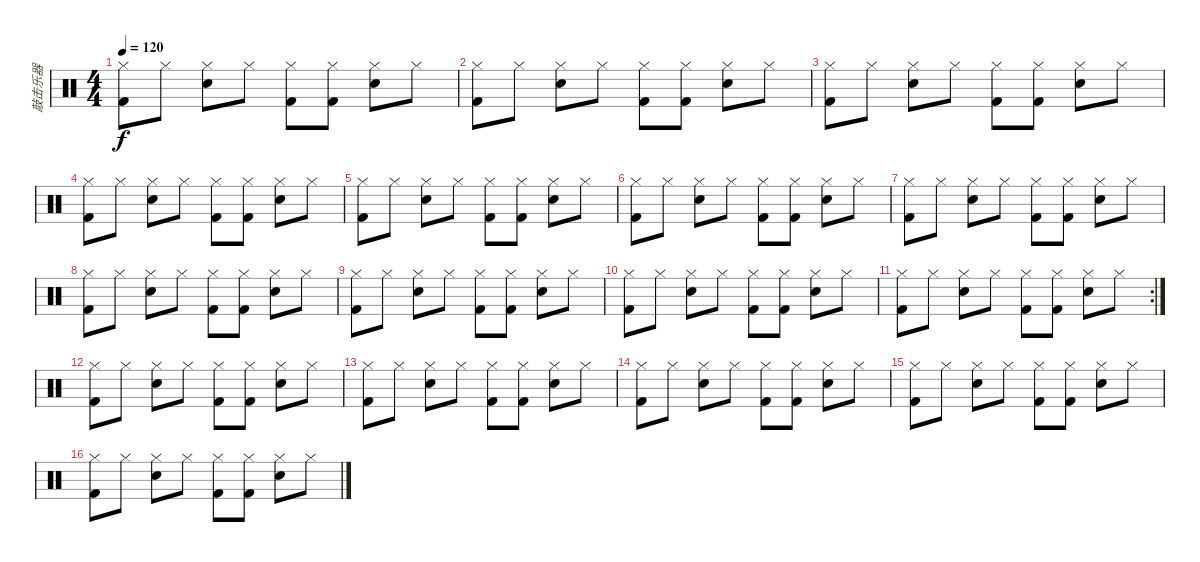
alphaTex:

\track ("敲击乐器" "敲击乐器") {instrument percussion}
\staff {score}
\articulation defaults
\ts (4 4)
\tempo 120
\clef neutral
\ks c
("Kick (hit) 2" "Hi-Hat (closed)").8{dy f} "Hi-Hat (closed)".8 ("Electric Snare (hit)" "Hi-Hat (closed)").8 "Hi-Hat (closed)".8 ("Kick (hit) 2" "Hi-Hat (closed)").8 ("Hi-Hat (closed)" "Kick (hit) 2").8 ("Electric Snare (hit)" "Hi-Hat (closed)").8 "Hi-Hat (closed)".8 |
("Kick (hit) 2" "Hi-Hat (closed)").8 "Hi-Hat (closed)".8 ("Electric Snare (hit)" "Hi-Hat (closed)").8 "Hi-Hat (closed)".8 ("Kick (hit) 2" "Hi-Hat (closed)").8 ("Hi-Hat (closed)" "Kick (hit) 2").8 ("Electric Snare (hit)" "Hi-Hat (closed)").8 "Hi-Hat (closed)".8 |
("Kick (hit) 2" "Hi-Hat (closed)").8 "Hi-Hat (closed)".8 ("Electric Snare (hit)" "Hi-Hat (closed)").8 "Hi-Hat (closed)".8 ("Kick (hit) 2" "Hi-Hat (closed)").8 ("Hi-Hat (closed)" "Kick (hit) 2").8 ("Electric Snare (hit)" "Hi-Hat (closed)").8 "Hi-Hat (closed)".8 |
("Kick (hit) 2" "Hi-Hat (closed)").8 "Hi-Hat (closed)".8 ("Electric Snare (hit)" "Hi-Hat (closed)").8 "Hi-Hat (closed)".8 ("Kick (hit) 2" "Hi-Hat (closed)").8 ("Hi-Hat (closed)" "Kick (hit) 2").8 ("Electric Snare (hit)" "Hi-Hat (closed)").8 "Hi-Hat (closed)".8 |
("Kick (hit) 2" "Hi-Hat (closed)").8 "Hi-Hat (closed)".8 ("Electric Snare (hit)" "Hi-Hat (closed)").8 "Hi-Hat (closed)".8 ("Kick (hit) 2" "Hi-Hat (closed)").8 ("Hi-Hat (closed)" "Kick (hit) 2").8 ("Electric Snare (hit)" "Hi-Hat (closed)").8 "Hi-Hat (closed)".8 |
("Kick (hit) 2" "Hi-Hat (closed)").8 "Hi-Hat (closed)".8 ("Electric Snare (hit)" "Hi-Hat (closed)").8 "Hi-Hat (closed)".8 ("Kick (hit) 2" "Hi-Hat (closed)").8 ("Hi-Hat (closed)" "Kick (hit) 2").8 ("Electric Snare (hit)" "Hi-Hat (closed)").8 "Hi-Hat (closed)".8 |
("Kick (hit) 2" "Hi-Hat (closed)").8 "Hi-Hat (closed)".8 ("Electric Snare (hit)" "Hi-Hat (closed)").8 "Hi-Hat (closed)".8 ("Kick (hit) 2" "Hi-Hat (closed)").8 ("Hi-Hat (closed)" "Kick (hit) 2").8 ("Electric Snare (hit)" "Hi-Hat (closed)").8 "Hi-Hat (closed)".8 |
("Kick (hit) 2" "Hi-Hat (closed)").8 "Hi-Hat (closed)".8 ("Electric Snare (hit)" "Hi-Hat (closed)").8 "Hi-Hat (closed)".8 ("Kick (hit) 2" "Hi-Hat (closed)").8 ("Hi-Hat (closed)" "Kick (hit) 2").8 ("Electric Snare (hit)" "Hi-Hat (closed)").8 "Hi-Hat (closed)".8 |
("Kick (hit) 2" "Hi-Hat (closed)").8 "Hi-Hat (closed)".8 ("Electric Snare (hit)" "Hi-Hat (closed)").8 "Hi-Hat (closed)".8 ("Kick (hit) 2" "Hi-Hat (closed)").8 ("Hi-Hat (closed)" "Kick (hit) 2").8 ("Electric Snare (hit)" "Hi-Hat (closed)").8 "Hi-Hat (closed)".8 |
("Kick (hit) 2" "Hi-Hat (closed)").8 "Hi-Hat (closed)".8 ("Electric Snare (hit)" "Hi-Hat (closed)").8 "Hi-Hat (closed)".8 ("Kick (hit) 2" "Hi-Hat (closed)").8 ("Hi-Hat (closed)" "Kick (hit) 2").8 ("Electric Snare (hit)" "Hi-Hat (closed)").8 "Hi-Hat (closed)".8 |
\rc 2
("Kick (hit) 2" "Hi-Hat (closed)").8 "Hi-Hat (closed)".8 ("Electric Snare (hit)" "Hi-Hat (closed)").8 "Hi-Hat (closed)".8 ("Kick (hit) 2" "Hi-Hat (closed)").8 ("Hi-Hat (closed)" "Kick (hit) 2").8 ("Electric Snare (hit)" "Hi-Hat (closed)").8 "Hi-Hat (closed)".8 |
("Kick (hit) 2" "Hi-Hat (closed)").8 "Hi-Hat (closed)".8 ("Electric Snare (hit)" "Hi-Hat (closed)").8 "Hi-Hat (closed)".8 ("Kick (hit) 2" "Hi-Hat (closed)").8 ("Hi-Hat (closed)" "Kick (hit) 2").8 ("Electric Snare (hit)" "Hi-Hat (closed)").8 "Hi-Hat (closed)".8 |
("Kick (hit) 2" "Hi-Hat (closed)").8 "Hi-Hat (closed)".8 ("Electric Snare (hit)" "Hi-Hat (closed)").8 "Hi-Hat (closed)".8 ("Kick (hit) 2" "Hi-Hat (closed)").8 ("Hi-Hat (closed)" "Kick (hit) 2").8 ("Electric Snare (hit)" "Hi-Hat (closed)").8 "Hi-Hat (closed)".8 |
("Kick (hit) 2" "Hi-Hat (closed)").8 "Hi-Hat (closed)".8 ("Electric Snare (hit)" "Hi-Hat (closed)").8 "Hi-Hat (closed)".8 ("Kick (hit) 2" "Hi-Hat (closed)").8 ("Hi-Hat (closed)" "Kick (hit) 2").8 ("Electric Snare (hit)" "Hi-Hat (closed)").8 "Hi-Hat (closed)".8 |
("Kick (hit) 2" "Hi-Hat (closed)").8 "Hi-Hat (closed)".8 ("Electric Snare (hit)" "Hi-Hat (closed)").8 "Hi-Hat (closed)".8 ("Kick (hit) 2" "Hi-Hat (closed)").8 ("Hi-Hat (closed)" "Kick (hit) 2").8 ("Electric Snare (hit)" "Hi-Hat (closed)").8 "Hi-Hat (closed)".8 |
("Kick (hit) 2" "Hi-Hat (closed)").8 "Hi-Hat (closed)".8 ("Electric Snare (hit)" "Hi-Hat (closed)").8 "Hi-Hat (closed)".8 ("Kick (hit) 2" "Hi-Hat (closed)").8 ("Hi-Hat (closed)" "Kick (hit) 2").8 ("Electric Snare (hit)" "Hi-Hat (closed)").8 "Hi-Hat (closed)".8
